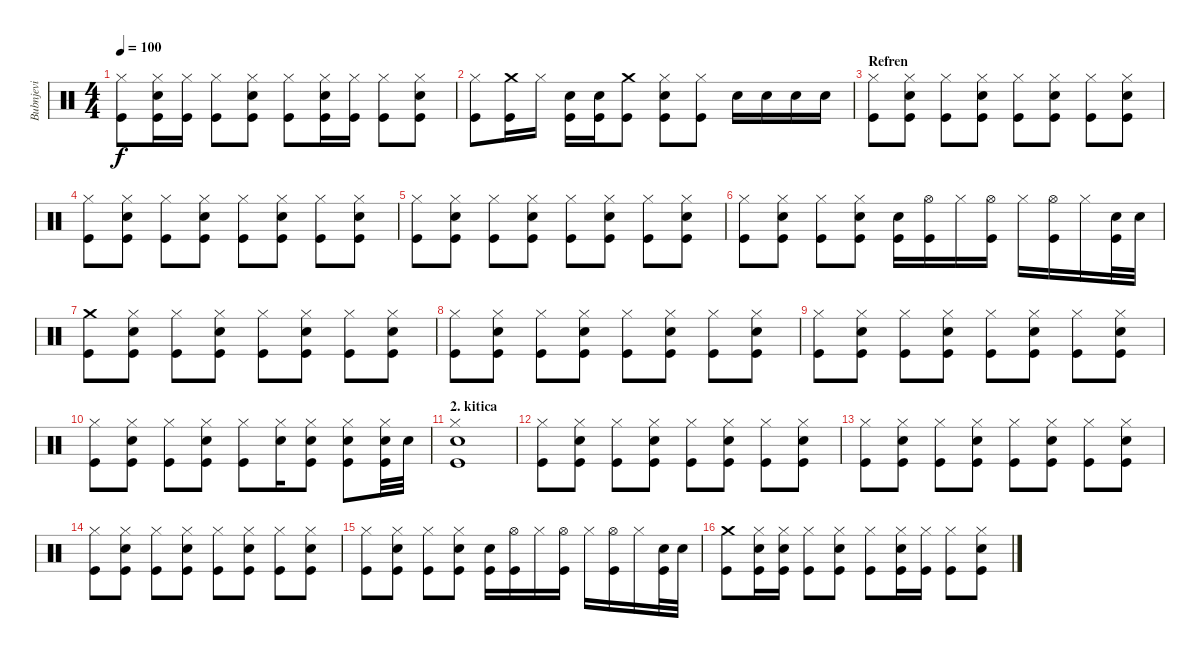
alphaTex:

\track ("Bubnjevi" "Bubnjevi") {instrument percussion}
\staff {score}
\articulation defaults
\ts (4 4)
\tempo 100
\clef neutral
\ks c
("Hi-Hat (closed)" "Kick (hit)").8{dy f} ("Electric Snare (hit)" "Hi-Hat (closed)" "Kick (hit)").16 ("Hi-Hat (closed)" "Kick (hit)").16 ("Hi-Hat (closed)" "Kick (hit)").8 ("Electric Snare (hit)" "Hi-Hat (closed)" "Kick (hit)").8 ("Hi-Hat (closed)" "Kick (hit)").8 ("Electric Snare (hit)" "Hi-Hat (closed)" "Kick (hit)").16 ("Hi-Hat (closed)" "Kick (hit)").16 ("Hi-Hat (closed)" "Kick (hit)").8 ("Electric Snare (hit)" "Hi-Hat (closed)" "Kick (hit)").8 |
("Hi-Hat (closed)" "Kick (hit)").8 ("Crash medium (hit)" "Kick (hit)").16 "Hi-Hat (closed)".16 ("Electric Snare (hit)" "Kick (hit)").16 ("Electric Snare (hit)" "Kick (hit)").16 ("Crash medium (hit)" "Kick (hit)").8 ("Electric Snare (hit)" "Hi-Hat (closed)" "Kick (hit)").8 ("Hi-Hat (closed)" "Kick (hit)").8 "Electric Snare (hit)".16 "Electric Snare (hit)".16 "Electric Snare (hit)".16 "Electric Snare (hit)".16 |
\section ("" "Refren")
("Hi-Hat (closed)" "Kick (hit)").8 ("Electric Snare (hit)" "Hi-Hat (closed)" "Kick (hit)").8 ("Hi-Hat (closed)" "Kick (hit)").8 ("Electric Snare (hit)" "Hi-Hat (closed)" "Kick (hit)").8 ("Hi-Hat (closed)" "Kick (hit)").8 ("Electric Snare (hit)" "Hi-Hat (closed)" "Kick (hit)").8 ("Hi-Hat (closed)" "Kick (hit)").8 ("Electric Snare (hit)" "Hi-Hat (closed)" "Kick (hit)").8 |
("Hi-Hat (closed)" "Kick (hit)").8 ("Electric Snare (hit)" "Hi-Hat (closed)" "Kick (hit)").8 ("Hi-Hat (closed)" "Kick (hit)").8 ("Electric Snare (hit)" "Hi-Hat (closed)" "Kick (hit)").8 ("Hi-Hat (closed)" "Kick (hit)").8 ("Electric Snare (hit)" "Hi-Hat (closed)" "Kick (hit)").8 ("Hi-Hat (closed)" "Kick (hit)").8 ("Electric Snare (hit)" "Hi-Hat (closed)" "Kick (hit)").8 |
("Hi-Hat (closed)" "Kick (hit)").8 ("Electric Snare (hit)" "Hi-Hat (closed)" "Kick (hit)").8 ("Hi-Hat (closed)" "Kick (hit)").8 ("Electric Snare (hit)" "Hi-Hat (closed)" "Kick (hit)").8 ("Hi-Hat (closed)" "Kick (hit)").8 ("Electric Snare (hit)" "Hi-Hat (closed)" "Kick (hit)").8 ("Hi-Hat (closed)" "Kick (hit)").8 ("Electric Snare (hit)" "Hi-Hat (closed)" "Kick (hit)").8 |
("Hi-Hat (closed)" "Kick (hit)").8 ("Electric Snare (hit)" "Hi-Hat (closed)" "Kick (hit)").8 ("Hi-Hat (closed)" "Kick (hit)").8 ("Electric Snare (hit)" "Hi-Hat (closed)" "Kick (hit)").8 ("Electric Snare (hit)" "Kick (hit)").16 ("Hi-Hat (open)" "Kick (hit)").16 "Hi-Hat (closed)".16 ("Hi-Hat (open)" "Kick (hit)").16 "Hi-Hat (closed)".16 ("Hi-Hat (open)" "Kick (hit)").16 "Hi-Hat (closed)".16 ("Electric Snare (hit)" "Kick (hit)").32 "Electric Snare (hit)".32 |
("Crash medium (hit)" "Kick (hit)").8 ("Electric Snare (hit)" "Hi-Hat (closed)" "Kick (hit)").8 ("Hi-Hat (closed)" "Kick (hit)").8 ("Electric Snare (hit)" "Hi-Hat (closed)" "Kick (hit)").8 ("Hi-Hat (closed)" "Kick (hit)").8 ("Electric Snare (hit)" "Hi-Hat (closed)" "Kick (hit)").8 ("Hi-Hat (closed)" "Kick (hit)").8 ("Electric Snare (hit)" "Hi-Hat (closed)" "Kick (hit)").8 |
("Hi-Hat (closed)" "Kick (hit)").8 ("Electric Snare (hit)" "Hi-Hat (closed)" "Kick (hit)").8 ("Hi-Hat (closed)" "Kick (hit)").8 ("Electric Snare (hit)" "Hi-Hat (closed)" "Kick (hit)").8 ("Hi-Hat (closed)" "Kick (hit)").8 ("Electric Snare (hit)" "Hi-Hat (closed)" "Kick (hit)").8 ("Hi-Hat (closed)" "Kick (hit)").8 ("Electric Snare (hit)" "Hi-Hat (closed)" "Kick (hit)").8 |
("Hi-Hat (closed)" "Kick (hit)").8 ("Electric Snare (hit)" "Hi-Hat (closed)" "Kick (hit)").8 ("Hi-Hat (closed)" "Kick (hit)").8 ("Electric Snare (hit)" "Hi-Hat (closed)" "Kick (hit)").8 ("Hi-Hat (closed)" "Kick (hit)").8 ("Electric Snare (hit)" "Hi-Hat (closed)" "Kick (hit)").8 ("Hi-Hat (closed)" "Kick (hit)").8 ("Electric Snare (hit)" "Hi-Hat (closed)" "Kick (hit)").8 |
("Hi-Hat (closed)" "Kick (hit)").8 ("Electric Snare (hit)" "Hi-Hat (closed)" "Kick (hit)").8 ("Hi-Hat (closed)" "Kick (hit)").8 ("Electric Snare (hit)" "Hi-Hat (closed)" "Kick (hit)").8 ("Hi-Hat (closed)" "Kick (hit)").8 ("Electric Snare (hit)" "Hi-Hat (closed)").16 ("Electric Snare (hit)" "Hi-Hat (closed)" "Kick (hit)").8 ("Electric Snare (hit)" "Hi-Hat (closed)" "Kick (hit)").8 ("Electric Snare (hit)" "Hi-Hat (closed)" "Kick (hit)").32 "Electric Snare (hit)".32 |
\section ("" "2. kitica")
("Electric Snare (hit)" "Hi-Hat (closed)" "Kick (hit)").1 |
("Hi-Hat (closed)" "Kick (hit)").8 ("Electric Snare (hit)" "Hi-Hat (closed)" "Kick (hit)").8 ("Hi-Hat (closed)" "Kick (hit)").8 ("Electric Snare (hit)" "Hi-Hat (closed)" "Kick (hit)").8 ("Hi-Hat (closed)" "Kick (hit)").8 ("Electric Snare (hit)" "Hi-Hat (closed)" "Kick (hit)").8 ("Hi-Hat (closed)" "Kick (hit)").8 ("Electric Snare (hit)" "Hi-Hat (closed)" "Kick (hit)").8 |
("Hi-Hat (closed)" "Kick (hit)").8 ("Electric Snare (hit)" "Hi-Hat (closed)" "Kick (hit)").8 ("Hi-Hat (closed)" "Kick (hit)").8 ("Electric Snare (hit)" "Hi-Hat (closed)" "Kick (hit)").8 ("Hi-Hat (closed)" "Kick (hit)").8 ("Electric Snare (hit)" "Hi-Hat (closed)" "Kick (hit)").8 ("Hi-Hat (closed)" "Kick (hit)").8 ("Electric Snare (hit)" "Hi-Hat (closed)" "Kick (hit)").8 |
("Hi-Hat (closed)" "Kick (hit)").8 ("Electric Snare (hit)" "Hi-Hat (closed)" "Kick (hit)").8 ("Hi-Hat (closed)" "Kick (hit)").8 ("Electric Snare (hit)" "Hi-Hat (closed)" "Kick (hit)").8 ("Hi-Hat (closed)" "Kick (hit)").8 ("Electric Snare (hit)" "Hi-Hat (closed)" "Kick (hit)").8 ("Hi-Hat (closed)" "Kick (hit)").8 ("Electric Snare (hit)" "Hi-Hat (closed)" "Kick (hit)").8 |
("Hi-Hat (closed)" "Kick (hit)").8 ("Electric Snare (hit)" "Hi-Hat (closed)" "Kick (hit)").8 ("Hi-Hat (closed)" "Kick (hit)").8 ("Electric Snare (hit)" "Hi-Hat (closed)" "Kick (hit)").8 ("Electric Snare (hit)" "Kick (hit)").16 ("Hi-Hat (open)" "Kick (hit)").16 "Hi-Hat (closed)".16 ("Hi-Hat (open)" "Kick (hit)").16 "Hi-Hat (closed)".16 ("Hi-Hat (open)" "Kick (hit)").16 "Hi-Hat (closed)".16 ("Electric Snare (hit)" "Kick (hit)").32 "Electric Snare (hit)".32 |
("Crash medium (hit)" "Kick (hit)").8 ("Electric Snare (hit)" "Hi-Hat (closed)" "Kick (hit)").16 ("Electric Snare (hit)" "Hi-Hat (closed)" "Kick (hit)").16 ("Hi-Hat (closed)" "Kick (hit)").8 ("Electric Snare (hit)" "Hi-Hat (closed)" "Kick (hit)").8 ("Hi-Hat (closed)" "Kick (hit)").8 ("Electric Snare (hit)" "Hi-Hat (closed)" "Kick (hit)").16 ("Hi-Hat (closed)" "Kick (hit)").16 ("Hi-Hat (closed)" "Kick (hit)").8 ("Electric Snare (hit)" "Hi-Hat (closed)" "Kick (hit)").8
